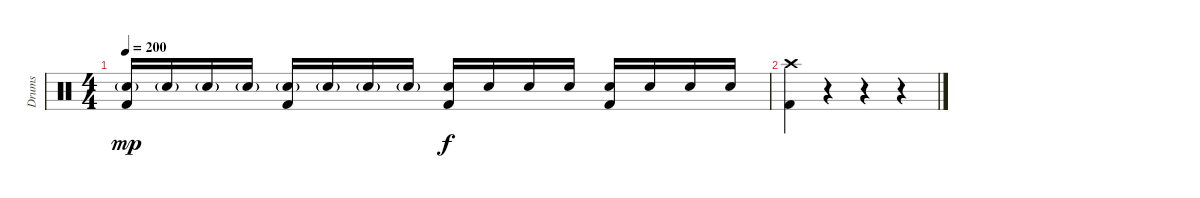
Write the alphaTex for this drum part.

\track ("Drums" "Drums") {instrument percussion}
\staff {score}
\articulation defaults
\ts (4 4)
\tempo 200
\clef neutral
\ks c
("Electric Snare (hit)"{g} "Kick (hit) 2").16{dy mp} "Electric Snare (hit)"{g}.16 "Electric Snare (hit)"{g}.16 "Electric Snare (hit)"{g}.16 ("Electric Snare (hit)"{g} "Kick (hit) 2").16 "Electric Snare (hit)"{g}.16 "Electric Snare (hit)"{g}.16 "Electric Snare (hit)"{g}.16 ("Electric Snare (hit)" "Kick (hit) 2").16{dy f} "Electric Snare (hit)".16 "Electric Snare (hit)".16 "Electric Snare (hit)".16 ("Electric Snare (hit)" "Kick (hit) 2").16 "Electric Snare (hit)".16 "Electric Snare (hit)".16 "Electric Snare (hit)".16 |
("Crash high (hit)" "Kick (hit) 2").4 r.4 r.4 r.4
